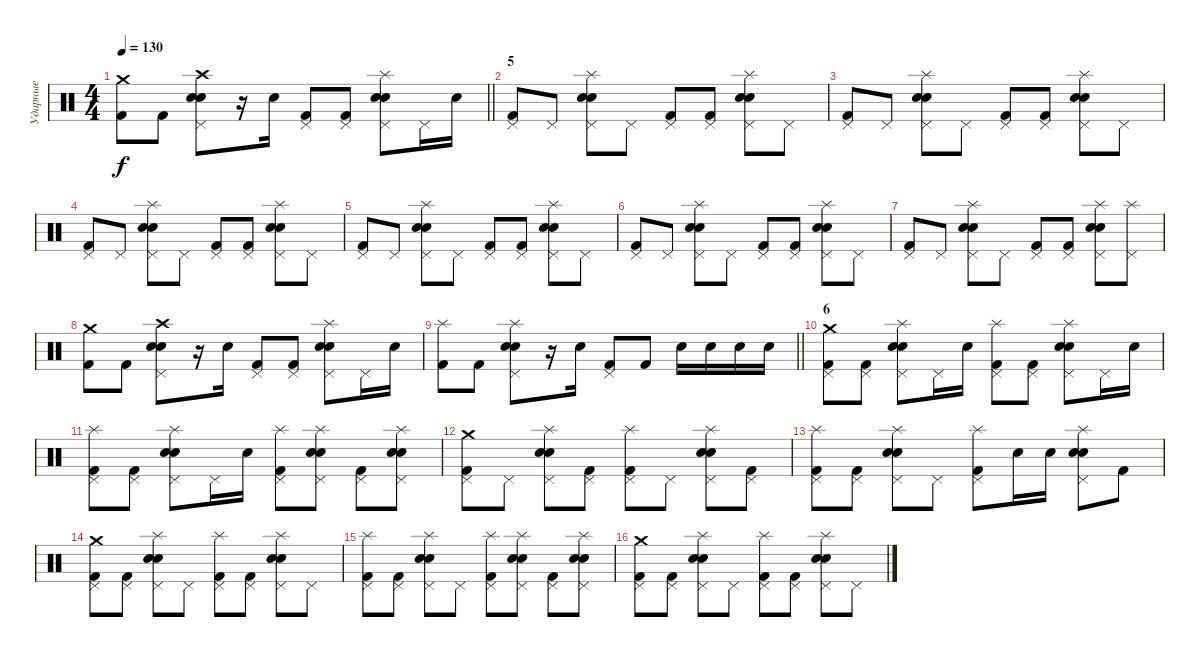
\track ("Ударные" "Ударные") {instrument percussion}
\staff {score}
\articulation defaults
\ts (4 4)
\tempo 130
\clef neutral
\barLineRight lightlight
\ks c
("Crash medium (hit)" "Kick (hit) 2").8{dy f} "Kick (hit) 2".8 ("Crash high (hit)" "Pedal Hi-Hat (hit)" "Electric Snare (hit)" "Snare (hit) 2").8 r.16 "Electric Snare (hit)".16 ("Pedal Hi-Hat (hit)" "Kick (hit) 2").8 ("Pedal Hi-Hat (hit)" "Kick (hit) 2").8 ("Splash (hit)" "Pedal Hi-Hat (hit)" "Electric Snare (hit)" "Snare (hit) 2").8 "Pedal Hi-Hat (hit)".16 "Electric Snare (hit)".16 |
\section ("" "5")
("Pedal Hi-Hat (hit)" "Kick (hit) 2").8 "Pedal Hi-Hat (hit)".8 ("Splash (hit)" "Pedal Hi-Hat (hit)" "Electric Snare (hit)" "Snare (hit) 2").8 "Pedal Hi-Hat (hit)".8 ("Pedal Hi-Hat (hit)" "Kick (hit) 2").8 ("Pedal Hi-Hat (hit)" "Kick (hit) 2").8 ("Splash (hit)" "Pedal Hi-Hat (hit)" "Electric Snare (hit)" "Snare (hit) 2").8 "Pedal Hi-Hat (hit)".8 |
("Pedal Hi-Hat (hit)" "Kick (hit) 2").8 "Pedal Hi-Hat (hit)".8 ("Splash (hit)" "Pedal Hi-Hat (hit)" "Electric Snare (hit)" "Snare (hit) 2").8 "Pedal Hi-Hat (hit)".8 ("Pedal Hi-Hat (hit)" "Kick (hit) 2").8 ("Pedal Hi-Hat (hit)" "Kick (hit) 2").8 ("Splash (hit)" "Pedal Hi-Hat (hit)" "Electric Snare (hit)" "Snare (hit) 2").8 "Pedal Hi-Hat (hit)".8 |
("Pedal Hi-Hat (hit)" "Kick (hit) 2").8 "Pedal Hi-Hat (hit)".8 ("Splash (hit)" "Pedal Hi-Hat (hit)" "Electric Snare (hit)" "Snare (hit) 2").8 "Pedal Hi-Hat (hit)".8 ("Pedal Hi-Hat (hit)" "Kick (hit) 2").8 ("Pedal Hi-Hat (hit)" "Kick (hit) 2").8 ("Splash (hit)" "Pedal Hi-Hat (hit)" "Electric Snare (hit)" "Snare (hit) 2").8 "Pedal Hi-Hat (hit)".8 |
("Pedal Hi-Hat (hit)" "Kick (hit) 2").8 "Pedal Hi-Hat (hit)".8 ("Splash (hit)" "Pedal Hi-Hat (hit)" "Electric Snare (hit)" "Snare (hit) 2").8 "Pedal Hi-Hat (hit)".8 ("Pedal Hi-Hat (hit)" "Kick (hit) 2").8 ("Pedal Hi-Hat (hit)" "Kick (hit) 2").8 ("Splash (hit)" "Pedal Hi-Hat (hit)" "Electric Snare (hit)" "Snare (hit) 2").8 "Pedal Hi-Hat (hit)".8 |
("Pedal Hi-Hat (hit)" "Kick (hit) 2").8 "Pedal Hi-Hat (hit)".8 ("Splash (hit)" "Pedal Hi-Hat (hit)" "Electric Snare (hit)" "Snare (hit) 2").8 "Pedal Hi-Hat (hit)".8 ("Pedal Hi-Hat (hit)" "Kick (hit) 2").8 ("Pedal Hi-Hat (hit)" "Kick (hit) 2").8 ("Splash (hit)" "Pedal Hi-Hat (hit)" "Electric Snare (hit)" "Snare (hit) 2").8 "Pedal Hi-Hat (hit)".8 |
("Pedal Hi-Hat (hit)" "Kick (hit) 2").8 "Pedal Hi-Hat (hit)".8 ("Splash (hit)" "Pedal Hi-Hat (hit)" "Electric Snare (hit)" "Snare (hit) 2").8 "Pedal Hi-Hat (hit)".8 ("Pedal Hi-Hat (hit)" "Kick (hit) 2").8 ("Pedal Hi-Hat (hit)" "Kick (hit) 2").8 ("Splash (hit)" "Pedal Hi-Hat (hit)" "Electric Snare (hit)" "Snare (hit) 2").8 ("Splash (hit)" "Pedal Hi-Hat (hit)").8 |
("Crash medium (hit)" "Kick (hit) 2").8 "Kick (hit) 2".8 ("Crash high (hit)" "Pedal Hi-Hat (hit)" "Electric Snare (hit)" "Snare (hit) 2").8 r.16 "Electric Snare (hit)".16 ("Pedal Hi-Hat (hit)" "Kick (hit) 2").8 ("Pedal Hi-Hat (hit)" "Kick (hit) 2").8 ("Splash (hit)" "Pedal Hi-Hat (hit)" "Electric Snare (hit)" "Snare (hit) 2").8 "Pedal Hi-Hat (hit)".16 "Electric Snare (hit)".16 |
\barLineRight lightlight
("Splash (hit)" "Kick (hit) 2").8 "Kick (hit) 2".8 ("Splash (hit)" "Pedal Hi-Hat (hit)" "Electric Snare (hit)" "Snare (hit) 2").8 r.16 "Electric Snare (hit)".16 ("Pedal Hi-Hat (hit)" "Kick (hit) 2").8 "Kick (hit) 2".8 "Electric Snare (hit)".16 "Electric Snare (hit)".16 "Electric Snare (hit)".16 "Electric Snare (hit)".16 |
\section ("" "6")
("Crash medium (hit)" "Pedal Hi-Hat (hit)" "Kick (hit) 2").8 ("Pedal Hi-Hat (hit)" "Kick (hit) 2").8 ("Splash (hit)" "Pedal Hi-Hat (hit)" "Electric Snare (hit)" "Snare (hit) 2").8 "Pedal Hi-Hat (hit)".16 "Electric Snare (hit)".16 ("Splash (hit)" "Pedal Hi-Hat (hit)" "Kick (hit) 2").8 ("Pedal Hi-Hat (hit)" "Kick (hit) 2").8 ("Splash (hit)" "Pedal Hi-Hat (hit)" "Electric Snare (hit)" "Snare (hit) 2").8 "Pedal Hi-Hat (hit)".16 "Electric Snare (hit)".16 |
("Splash (hit)" "Pedal Hi-Hat (hit)" "Kick (hit) 2").8 ("Pedal Hi-Hat (hit)" "Kick (hit) 2").8 ("Splash (hit)" "Pedal Hi-Hat (hit)" "Electric Snare (hit)" "Snare (hit) 2").8 "Pedal Hi-Hat (hit)".16 "Electric Snare (hit)".16 ("Splash (hit)" "Pedal Hi-Hat (hit)" "Kick (hit) 2").8 ("Splash (hit)" "Pedal Hi-Hat (hit)" "Electric Snare (hit)" "Snare (hit) 2").8 ("Pedal Hi-Hat (hit)" "Kick (hit) 2").8 ("Splash (hit)" "Pedal Hi-Hat (hit)" "Electric Snare (hit)" "Snare (hit) 2").8 |
("Crash medium (hit)" "Pedal Hi-Hat (hit)" "Kick (hit) 2").8 "Pedal Hi-Hat (hit)".8 ("Splash (hit)" "Pedal Hi-Hat (hit)" "Electric Snare (hit)" "Snare (hit) 2").8 ("Pedal Hi-Hat (hit)" "Kick (hit) 2").8 ("Splash (hit)" "Pedal Hi-Hat (hit)" "Kick (hit) 2").8 "Pedal Hi-Hat (hit)".8 ("Splash (hit)" "Pedal Hi-Hat (hit)" "Electric Snare (hit)" "Snare (hit) 2").8 ("Pedal Hi-Hat (hit)" "Kick (hit) 2").8 |
("Splash (hit)" "Pedal Hi-Hat (hit)" "Kick (hit) 2").8 ("Pedal Hi-Hat (hit)" "Kick (hit) 2").8 ("Splash (hit)" "Pedal Hi-Hat (hit)" "Electric Snare (hit)" "Snare (hit) 2").8 "Pedal Hi-Hat (hit)".8 ("Splash (hit)" "Pedal Hi-Hat (hit)" "Kick (hit) 2").8 "Electric Snare (hit)".16 "Electric Snare (hit)".16 ("Splash (hit)" "Pedal Hi-Hat (hit)" "Electric Snare (hit)" "Snare (hit) 2").8 "Kick (hit) 2".8 |
("Crash medium (hit)" "Pedal Hi-Hat (hit)" "Kick (hit) 2").8 ("Pedal Hi-Hat (hit)" "Kick (hit) 2").8 ("Splash (hit)" "Pedal Hi-Hat (hit)" "Electric Snare (hit)" "Snare (hit) 2").8 "Pedal Hi-Hat (hit)".8 ("Splash (hit)" "Pedal Hi-Hat (hit)" "Kick (hit) 2").8 ("Pedal Hi-Hat (hit)" "Kick (hit) 2").8 ("Splash (hit)" "Pedal Hi-Hat (hit)" "Electric Snare (hit)" "Snare (hit) 2").8 "Pedal Hi-Hat (hit)".8 |
("Splash (hit)" "Pedal Hi-Hat (hit)" "Kick (hit) 2").8 ("Pedal Hi-Hat (hit)" "Kick (hit) 2").8 ("Splash (hit)" "Pedal Hi-Hat (hit)" "Electric Snare (hit)" "Snare (hit) 2").8 "Pedal Hi-Hat (hit)".8 ("Splash (hit)" "Pedal Hi-Hat (hit)" "Kick (hit) 2").8 ("Splash (hit)" "Pedal Hi-Hat (hit)" "Electric Snare (hit)" "Snare (hit) 2").8 ("Pedal Hi-Hat (hit)" "Kick (hit) 2").8 ("Splash (hit)" "Pedal Hi-Hat (hit)" "Electric Snare (hit)" "Snare (hit) 2").8 |
("Crash medium (hit)" "Pedal Hi-Hat (hit)" "Kick (hit) 2").8 ("Pedal Hi-Hat (hit)" "Kick (hit) 2").8 ("Splash (hit)" "Pedal Hi-Hat (hit)" "Electric Snare (hit)" "Snare (hit) 2").8 "Pedal Hi-Hat (hit)".8 ("Splash (hit)" "Pedal Hi-Hat (hit)" "Kick (hit) 2").8 ("Pedal Hi-Hat (hit)" "Kick (hit) 2").8 ("Splash (hit)" "Pedal Hi-Hat (hit)" "Electric Snare (hit)" "Snare (hit) 2").8 "Pedal Hi-Hat (hit)".8
